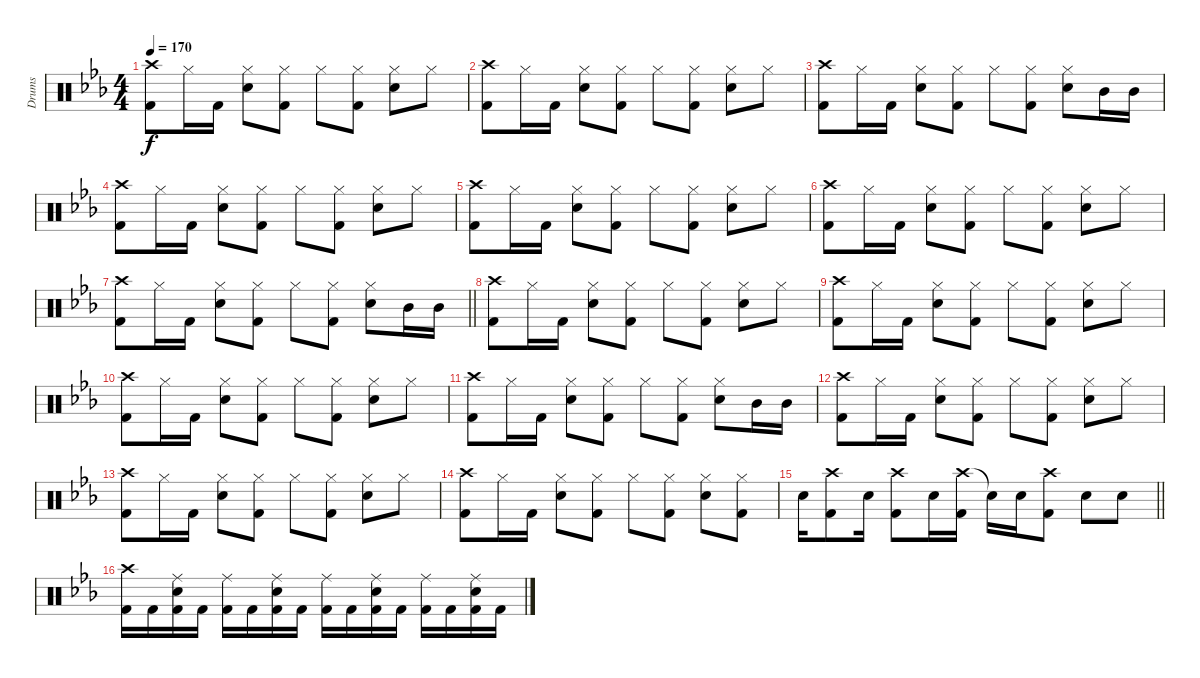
\track ("Drums" "Drums") {instrument percussion}
\staff {score}
\articulation defaults
\ts (4 4)
\tempo 170
\clef neutral
\ks eb
("Crash high (hit)" "Kick (hit) 2").8{dy f} "Hi-Hat (closed)".16 "Kick (hit) 2".16 ("Hi-Hat (closed)" "Snare (hit) 2").8 ("Hi-Hat (closed)" "Kick (hit) 2").8 "Hi-Hat (closed)".8 ("Hi-Hat (closed)" "Kick (hit) 2").8 ("Hi-Hat (closed)" "Snare (hit) 2").8 "Hi-Hat (closed)".8 |
("Crash high (hit)" "Kick (hit) 2").8 "Hi-Hat (closed)".16 "Kick (hit) 2".16 ("Hi-Hat (closed)" "Snare (hit) 2").8 ("Hi-Hat (closed)" "Kick (hit) 2").8 "Hi-Hat (closed)".8 ("Hi-Hat (closed)" "Kick (hit) 2").8 ("Hi-Hat (closed)" "Snare (hit) 2").8 "Hi-Hat (closed)".8 |
("Crash high (hit)" "Kick (hit) 2").8 "Hi-Hat (closed)".16 "Kick (hit) 2".16 ("Hi-Hat (closed)" "Snare (hit) 2").8 ("Hi-Hat (closed)" "Kick (hit) 2").8 "Hi-Hat (closed)".8 ("Hi-Hat (closed)" "Kick (hit) 2").8 ("Hi-Hat (closed)" "Snare (hit) 2").8 "Mid Tom (hit)".16 "Mid Tom (hit)".16 |
("Crash high (hit)" "Kick (hit) 2").8 "Hi-Hat (closed)".16 "Kick (hit) 2".16 ("Hi-Hat (closed)" "Snare (hit) 2").8 ("Hi-Hat (closed)" "Kick (hit) 2").8 "Hi-Hat (closed)".8 ("Hi-Hat (closed)" "Kick (hit) 2").8 ("Hi-Hat (closed)" "Snare (hit) 2").8 "Hi-Hat (closed)".8 |
("Crash high (hit)" "Kick (hit) 2").8 "Hi-Hat (closed)".16 "Kick (hit) 2".16 ("Hi-Hat (closed)" "Snare (hit) 2").8 ("Hi-Hat (closed)" "Kick (hit) 2").8 "Hi-Hat (closed)".8 ("Hi-Hat (closed)" "Kick (hit) 2").8 ("Hi-Hat (closed)" "Snare (hit) 2").8 "Hi-Hat (closed)".8 |
("Crash high (hit)" "Kick (hit) 2").8 "Hi-Hat (closed)".16 "Kick (hit) 2".16 ("Hi-Hat (closed)" "Snare (hit) 2").8 ("Hi-Hat (closed)" "Kick (hit) 2").8 "Hi-Hat (closed)".8 ("Hi-Hat (closed)" "Kick (hit) 2").8 ("Hi-Hat (closed)" "Snare (hit) 2").8 "Hi-Hat (closed)".8 |
\barLineRight lightlight
("Crash high (hit)" "Kick (hit) 2").8 "Hi-Hat (closed)".16 "Kick (hit) 2".16 ("Hi-Hat (closed)" "Snare (hit) 2").8 ("Hi-Hat (closed)" "Kick (hit) 2").8 "Hi-Hat (closed)".8 ("Hi-Hat (closed)" "Kick (hit) 2").8 ("Hi-Hat (closed)" "Snare (hit) 2").8 "Mid Tom (hit)".16 "Mid Tom (hit)".16 |
("Crash high (hit)" "Kick (hit) 2").8 "Hi-Hat (closed)".16 "Kick (hit) 2".16 ("Hi-Hat (closed)" "Snare (hit) 2").8 ("Hi-Hat (closed)" "Kick (hit) 2").8 "Hi-Hat (closed)".8 ("Hi-Hat (closed)" "Kick (hit) 2").8 ("Hi-Hat (closed)" "Snare (hit) 2").8 "Hi-Hat (closed)".8 |
("Crash high (hit)" "Kick (hit) 2").8 "Hi-Hat (closed)".16 "Kick (hit) 2".16 ("Hi-Hat (closed)" "Snare (hit) 2").8 ("Hi-Hat (closed)" "Kick (hit) 2").8 "Hi-Hat (closed)".8 ("Hi-Hat (closed)" "Kick (hit) 2").8 ("Hi-Hat (closed)" "Snare (hit) 2").8 "Hi-Hat (closed)".8 |
("Crash high (hit)" "Kick (hit) 2").8 "Hi-Hat (closed)".16 "Kick (hit) 2".16 ("Hi-Hat (closed)" "Snare (hit) 2").8 ("Hi-Hat (closed)" "Kick (hit) 2").8 "Hi-Hat (closed)".8 ("Hi-Hat (closed)" "Kick (hit) 2").8 ("Hi-Hat (closed)" "Snare (hit) 2").8 "Hi-Hat (closed)".8 |
("Crash high (hit)" "Kick (hit) 2").8 "Hi-Hat (closed)".16 "Kick (hit) 2".16 ("Hi-Hat (closed)" "Snare (hit) 2").8 ("Hi-Hat (closed)" "Kick (hit) 2").8 "Hi-Hat (closed)".8 ("Hi-Hat (closed)" "Kick (hit) 2").8 ("Hi-Hat (closed)" "Snare (hit) 2").8 "Mid Tom (hit)".16 "Mid Tom (hit)".16 |
("Crash high (hit)" "Kick (hit) 2").8 "Hi-Hat (closed)".16 "Kick (hit) 2".16 ("Hi-Hat (closed)" "Snare (hit) 2").8 ("Hi-Hat (closed)" "Kick (hit) 2").8 "Hi-Hat (closed)".8 ("Hi-Hat (closed)" "Kick (hit) 2").8 ("Hi-Hat (closed)" "Snare (hit) 2").8 "Hi-Hat (closed)".8 |
("Crash high (hit)" "Kick (hit) 2").8 "Hi-Hat (closed)".16 "Kick (hit) 2".16 ("Hi-Hat (closed)" "Snare (hit) 2").8 ("Hi-Hat (closed)" "Kick (hit) 2").8 "Hi-Hat (closed)".8 ("Hi-Hat (closed)" "Kick (hit) 2").8 ("Hi-Hat (closed)" "Snare (hit) 2").8 "Hi-Hat (closed)".8 |
("Crash high (hit)" "Kick (hit) 2").8 "Hi-Hat (closed)".16 "Kick (hit) 2".16 ("Hi-Hat (closed)" "Snare (hit) 2").8 ("Hi-Hat (closed)" "Kick (hit) 2").8 "Hi-Hat (closed)".8 ("Hi-Hat (closed)" "Kick (hit) 2").8 ("Hi-Hat (closed)" "Snare (hit) 2").8 ("Hi-Hat (closed)" "Kick (hit) 2").8 |
\barLineRight lightlight "Snare (hit) 2".16
("Crash high (hit)" "Kick (hit) 2").8 "Snare (hit) 2".16 ("Crash high (hit)" "Kick (hit) 2").8 "Snare (hit) 2".16 ("Crash high (hit)" "Kick (hit) 2").16 "Snare (hit)"{t}.16 "Snare (hit) 2".16 ("Crash high (hit)" "Kick (hit) 2").8 "Snare (hit) 2".8 "Snare (hit) 2".8 |
("Crash high (hit)" "Kick (hit) 2").16 "Kick (hit) 2".16 ("Ride (middle)" "Snare (hit) 2" "Kick (hit) 2").16 "Kick (hit) 2".16 ("Ride (middle)" "Kick (hit) 2").16 "Kick (hit) 2".16 ("Ride (middle)" "Snare (hit) 2" "Kick (hit) 2").16 "Kick (hit) 2".16 ("Ride (middle)" "Kick (hit) 2").16 "Kick (hit) 2".16 ("Ride (middle)" "Snare (hit) 2" "Kick (hit) 2").16 "Kick (hit) 2".16 ("Ride (middle)" "Kick (hit) 2").16 "Kick (hit) 2".16 ("Ride (middle)" "Snare (hit) 2" "Kick (hit) 2").16 "Kick (hit) 2".16
